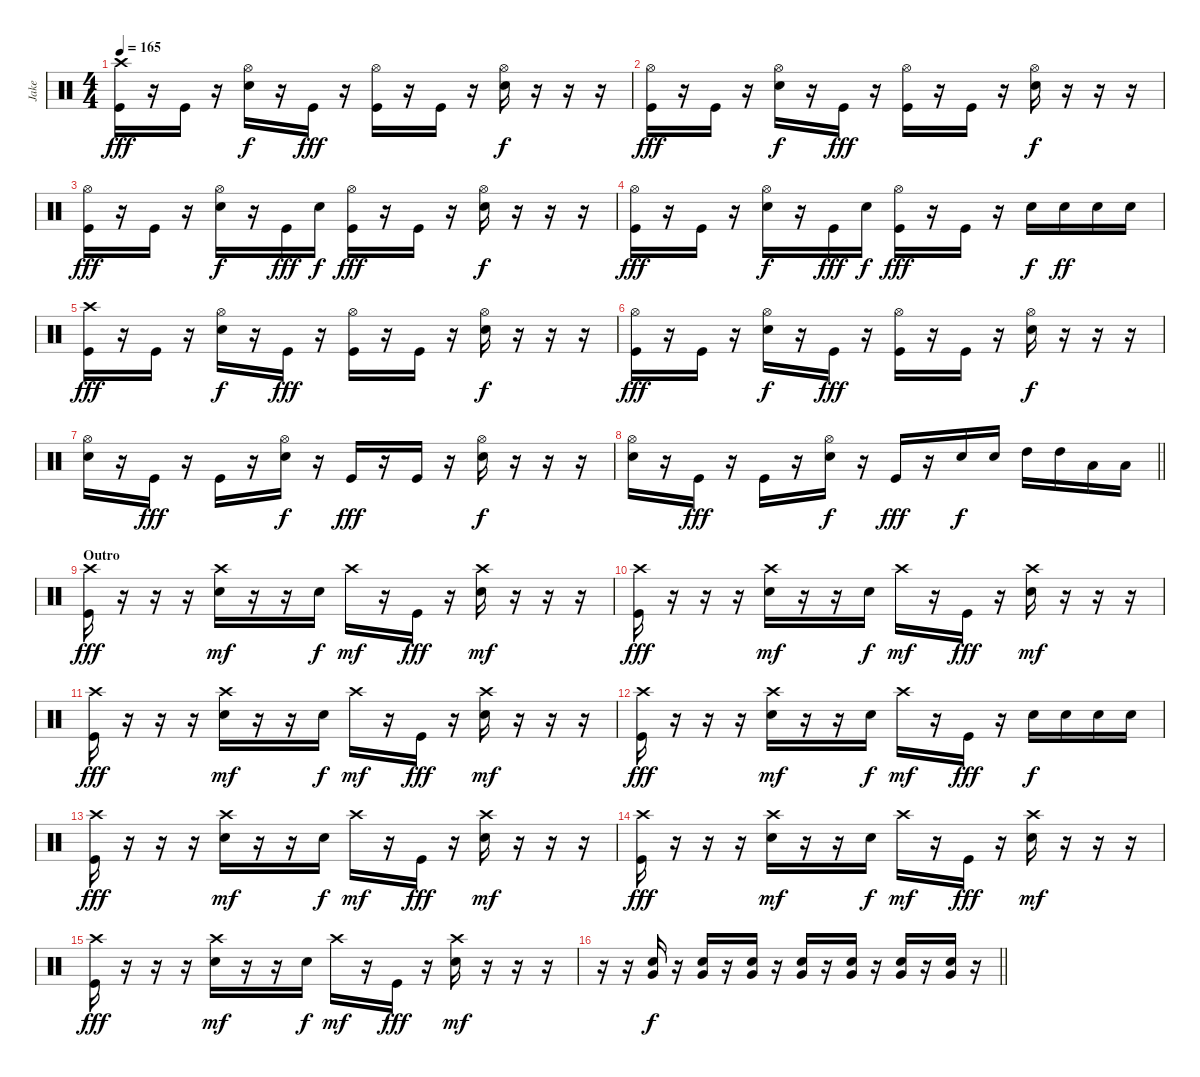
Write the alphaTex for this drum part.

\track ("Jake" "Jake") {instrument percussion}
\staff {score}
\articulation defaults
\ts (4 4)
\tempo 165
\clef neutral
\ks c
("Crash high (hit)" "Kick (hit)").16{dy fff} r.16 "Kick (hit)".16 r.16 ("Hi-Hat (open)" "Electric Snare (hit)").16{dy f} r.16 "Kick (hit)".16{dy fff} r.16 ("Hi-Hat (open)" "Kick (hit)").16 r.16 "Kick (hit)".16 r.16 ("Hi-Hat (open)" "Electric Snare (hit)").16{dy f} r.16 r.16 r.16 |
("Hi-Hat (open)" "Kick (hit)").16{dy fff} r.16 "Kick (hit)".16 r.16 ("Hi-Hat (open)" "Electric Snare (hit)").16{dy f} r.16 "Kick (hit)".16{dy fff} r.16 ("Hi-Hat (open)" "Kick (hit)").16 r.16 "Kick (hit)".16 r.16 ("Hi-Hat (open)" "Electric Snare (hit)").16{dy f} r.16 r.16 r.16 |
("Hi-Hat (open)" "Kick (hit)").16{dy fff} r.16 "Kick (hit)".16 r.16 ("Hi-Hat (open)" "Electric Snare (hit)").16{dy f} r.16 "Kick (hit)".16{dy fff} "Electric Snare (hit)".16{dy f} ("Hi-Hat (open)" "Kick (hit)").16{dy fff} r.16 "Kick (hit)".16 r.16 ("Hi-Hat (open)" "Electric Snare (hit)").16{dy f} r.16 r.16 r.16 |
("Hi-Hat (open)" "Kick (hit)").16{dy fff} r.16 "Kick (hit)".16 r.16 ("Hi-Hat (open)" "Electric Snare (hit)").16{dy f} r.16 "Kick (hit)".16{dy fff} "Electric Snare (hit)".16{dy f} ("Hi-Hat (open)" "Kick (hit)").16{dy fff} r.16 "Kick (hit)".16 r.16 "Electric Snare (hit)".16{dy f} "Electric Snare (hit)".16{dy ff} "Electric Snare (hit)".16 "Electric Snare (hit)".16 |
("Crash high (hit)" "Kick (hit)").16{dy fff} r.16 "Kick (hit)".16 r.16 ("Hi-Hat (open)" "Electric Snare (hit)").16{dy f} r.16 "Kick (hit)".16{dy fff} r.16 ("Hi-Hat (open)" "Kick (hit)").16 r.16 "Kick (hit)".16 r.16 ("Hi-Hat (open)" "Electric Snare (hit)").16{dy f} r.16 r.16 r.16 |
("Hi-Hat (open)" "Kick (hit)").16{dy fff} r.16 "Kick (hit)".16 r.16 ("Hi-Hat (open)" "Electric Snare (hit)").16{dy f} r.16 "Kick (hit)".16{dy fff} r.16 ("Hi-Hat (open)" "Kick (hit)").16 r.16 "Kick (hit)".16 r.16 ("Hi-Hat (open)" "Electric Snare (hit)").16{dy f} r.16 r.16 r.16 |
("Hi-Hat (open)" "Electric Snare (hit)").16 r.16 "Kick (hit)".16{dy fff} r.16 "Kick (hit)".16 r.16 ("Hi-Hat (open)" "Electric Snare (hit)").16{dy f} r.16 "Kick (hit)".16{dy fff} r.16 "Kick (hit)".16 r.16 ("Hi-Hat (open)" "Electric Snare (hit)").16{dy f} r.16 r.16 r.16 |
\barLineRight lightlight
("Hi-Hat (open)" "Electric Snare (hit)").16 r.16 "Kick (hit)".16{dy fff} r.16 "Kick (hit)".16 r.16 ("Hi-Hat (open)" "Electric Snare (hit)").16{dy f} r.16 "Kick (hit)".16{dy fff} r.16 "Electric Snare (hit)".16{dy f} "Electric Snare (hit)".16 "High Tom (hit)".16 "High Tom (hit)".16 "Low Tom (hit)".16 "Low Tom (hit)".16 |
\section ("" "Outro")
("Crash high (hit)" "Kick (hit)").16{dy fff} r.16 r.16 r.16 ("Crash high (hit)" "Electric Snare (hit)").16{dy mf} r.16 r.16 "Electric Snare (hit)".16{dy f} "Crash high (hit)".16{dy mf} r.16 "Kick (hit)".16{dy fff} r.16 ("Crash high (hit)" "Electric Snare (hit)").16{dy mf} r.16 r.16 r.16 |
("Crash high (hit)" "Kick (hit)").16{dy fff} r.16 r.16 r.16 ("Crash high (hit)" "Electric Snare (hit)").16{dy mf} r.16 r.16 "Electric Snare (hit)".16{dy f} "Crash high (hit)".16{dy mf} r.16 "Kick (hit)".16{dy fff} r.16 ("Crash high (hit)" "Electric Snare (hit)").16{dy mf} r.16 r.16 r.16 |
("Crash high (hit)" "Kick (hit)").16{dy fff} r.16 r.16 r.16 ("Crash high (hit)" "Electric Snare (hit)").16{dy mf} r.16 r.16 "Electric Snare (hit)".16{dy f} "Crash high (hit)".16{dy mf} r.16 "Kick (hit)".16{dy fff} r.16 ("Crash high (hit)" "Electric Snare (hit)").16{dy mf} r.16 r.16 r.16 |
("Crash high (hit)" "Kick (hit)").16{dy fff} r.16 r.16 r.16 ("Crash high (hit)" "Electric Snare (hit)").16{dy mf} r.16 r.16 "Electric Snare (hit)".16{dy f} "Crash high (hit)".16{dy mf} r.16 "Kick (hit)".16{dy fff} r.16 "Electric Snare (hit)".16{dy f} "Electric Snare (hit)".16 "Electric Snare (hit)".16 "Electric Snare (hit)".16 |
("Crash high (hit)" "Kick (hit)").16{dy fff} r.16 r.16 r.16 ("Crash high (hit)" "Electric Snare (hit)").16{dy mf} r.16 r.16 "Electric Snare (hit)".16{dy f} "Crash high (hit)".16{dy mf} r.16 "Kick (hit)".16{dy fff} r.16 ("Crash high (hit)" "Electric Snare (hit)").16{dy mf} r.16 r.16 r.16 |
("Crash high (hit)" "Kick (hit)").16{dy fff} r.16 r.16 r.16 ("Crash high (hit)" "Electric Snare (hit)").16{dy mf} r.16 r.16 "Electric Snare (hit)".16{dy f} "Crash high (hit)".16{dy mf} r.16 "Kick (hit)".16{dy fff} r.16 ("Crash high (hit)" "Electric Snare (hit)").16{dy mf} r.16 r.16 r.16 |
("Crash high (hit)" "Kick (hit)").16{dy fff} r.16 r.16 r.16 ("Crash high (hit)" "Electric Snare (hit)").16{dy mf} r.16 r.16 "Electric Snare (hit)".16{dy f} "Crash high (hit)".16{dy mf} r.16 "Kick (hit)".16{dy fff} r.16 ("Crash high (hit)" "Electric Snare (hit)").16{dy mf} r.16 r.16 r.16 |
\barLineRight lightlight
r.16 r.16 ("Very Low Tom (hit)" "Electric Snare (hit)").16{dy f} r.16 ("Very Low Tom (hit)" "Electric Snare (hit)").16 r.16 ("Very Low Tom (hit)" "Electric Snare (hit)").16 r.16 ("Very Low Tom (hit)" "Electric Snare (hit)").16 r.16 ("Very Low Tom (hit)" "Electric Snare (hit)").16 r.16 ("Very Low Tom (hit)" "Electric Snare (hit)").16 r.16 ("Very Low Tom (hit)" "Electric Snare (hit)").16 r.16
